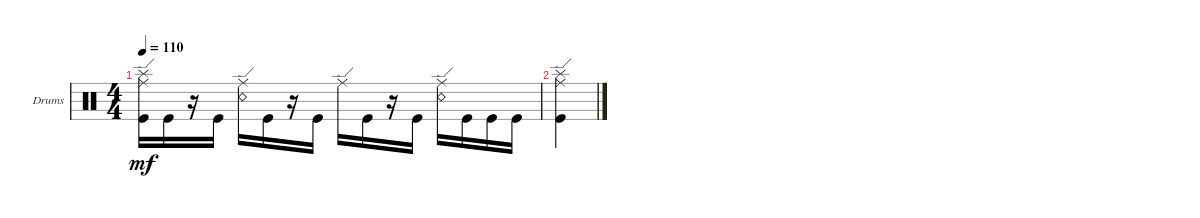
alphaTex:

\defaultSystemsLayout 4
\bracketExtendMode groupsimilarinstruments
\firstSystemTrackNameOrientation horizontal
\otherSystemsTrackNameOrientation horizontal
\track ("Drumkit" "Drums") {instrument percussion}
\staff {score}
\articulation defaults
\ts (4 4)
\tempo 110
\clef neutral
\ks c
("Ride (edge)" "Kick (hit)" "Splash (hit)").16{dy mf} "Kick (hit)".16 r.16 "Kick (hit)".16 ("Snare (rim shot)" "Ride (edge)").16 "Kick (hit)".16 r.16 "Kick (hit)".16 "Ride (edge)".16 "Kick (hit)".16 r.16 "Kick (hit)".16 ("Ride (edge)" "Snare (rim shot)").16 "Kick (hit)".16 "Kick (hit)".16 "Kick (hit)".16 |
("Kick (hit)" "Splash (hit)" "Ride (edge)").4
